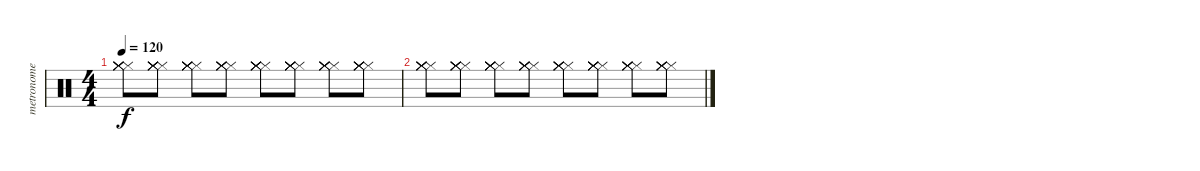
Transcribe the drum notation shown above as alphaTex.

\track ("metronome aQme" "metronome ") {instrument percussion}
\staff {score}
\articulation defaults
\ts (4 4)
\tempo 120
\clef neutral
\ks c
("Hi-Hat (closed)" "Hi-Hat (closed)" "Hi-Hat (closed)" "Hi-Hat (closed)" "Hi-Hat (closed)" "Hi-Hat (closed)").8{dy f} ("Hi-Hat (closed)" "Hi-Hat (closed)" "Hi-Hat (closed)" "Hi-Hat (closed)" "Hi-Hat (closed)" "Hi-Hat (closed)").8 ("Hi-Hat (closed)" "Hi-Hat (closed)" "Hi-Hat (closed)" "Hi-Hat (closed)" "Hi-Hat (closed)" "Hi-Hat (closed)").8 ("Hi-Hat (closed)" "Hi-Hat (closed)" "Hi-Hat (closed)" "Hi-Hat (closed)" "Hi-Hat (closed)" "Hi-Hat (closed)").8 ("Hi-Hat (closed)" "Hi-Hat (closed)" "Hi-Hat (closed)" "Hi-Hat (closed)" "Hi-Hat (closed)" "Hi-Hat (closed)").8 ("Hi-Hat (closed)" "Hi-Hat (closed)" "Hi-Hat (closed)" "Hi-Hat (closed)" "Hi-Hat (closed)" "Hi-Hat (closed)").8 ("Hi-Hat (closed)" "Hi-Hat (closed)" "Hi-Hat (closed)" "Hi-Hat (closed)" "Hi-Hat (closed)" "Hi-Hat (closed)").8 ("Hi-Hat (closed)" "Hi-Hat (closed)" "Hi-Hat (closed)" "Hi-Hat (closed)" "Hi-Hat (closed)" "Hi-Hat (closed)").8 |
("Hi-Hat (closed)" "Hi-Hat (closed)" "Hi-Hat (closed)" "Hi-Hat (closed)" "Hi-Hat (closed)" "Hi-Hat (closed)").8 ("Hi-Hat (closed)" "Hi-Hat (closed)" "Hi-Hat (closed)" "Hi-Hat (closed)" "Hi-Hat (closed)" "Hi-Hat (closed)").8 ("Hi-Hat (closed)" "Hi-Hat (closed)" "Hi-Hat (closed)" "Hi-Hat (closed)" "Hi-Hat (closed)" "Hi-Hat (closed)").8 ("Hi-Hat (closed)" "Hi-Hat (closed)" "Hi-Hat (closed)" "Hi-Hat (closed)" "Hi-Hat (closed)" "Hi-Hat (closed)").8 ("Hi-Hat (closed)" "Hi-Hat (closed)" "Hi-Hat (closed)" "Hi-Hat (closed)" "Hi-Hat (closed)" "Hi-Hat (closed)").8 ("Hi-Hat (closed)" "Hi-Hat (closed)" "Hi-Hat (closed)" "Hi-Hat (closed)" "Hi-Hat (closed)" "Hi-Hat (closed)").8 ("Hi-Hat (closed)" "Hi-Hat (closed)" "Hi-Hat (closed)" "Hi-Hat (closed)" "Hi-Hat (closed)" "Hi-Hat (closed)").8 ("Hi-Hat (closed)" "Hi-Hat (closed)" "Hi-Hat (closed)" "Hi-Hat (closed)" "Hi-Hat (closed)" "Hi-Hat (closed)").8
